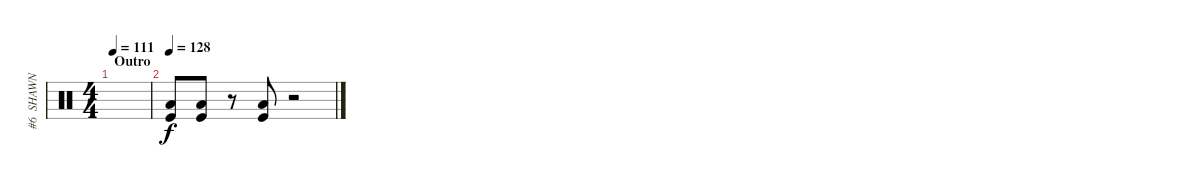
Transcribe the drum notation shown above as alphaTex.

\track ("#6  SHAWN \"CLOWN\" CRAHAN" "#6  SHAWN ") {instrument percussion}
\staff {score}
\articulation defaults
\ts (4 4)
\section ("" "Outro")
\tempo 111
\clef neutral
\ks c
|
\tempo 128
("Low Floor Tom (hit)" "Kick (hit)").8 ("Low Tom (hit)" "Kick (hit)").8 r.8 ("Low Floor Tom (hit)" "Kick (hit)").8 r.2
